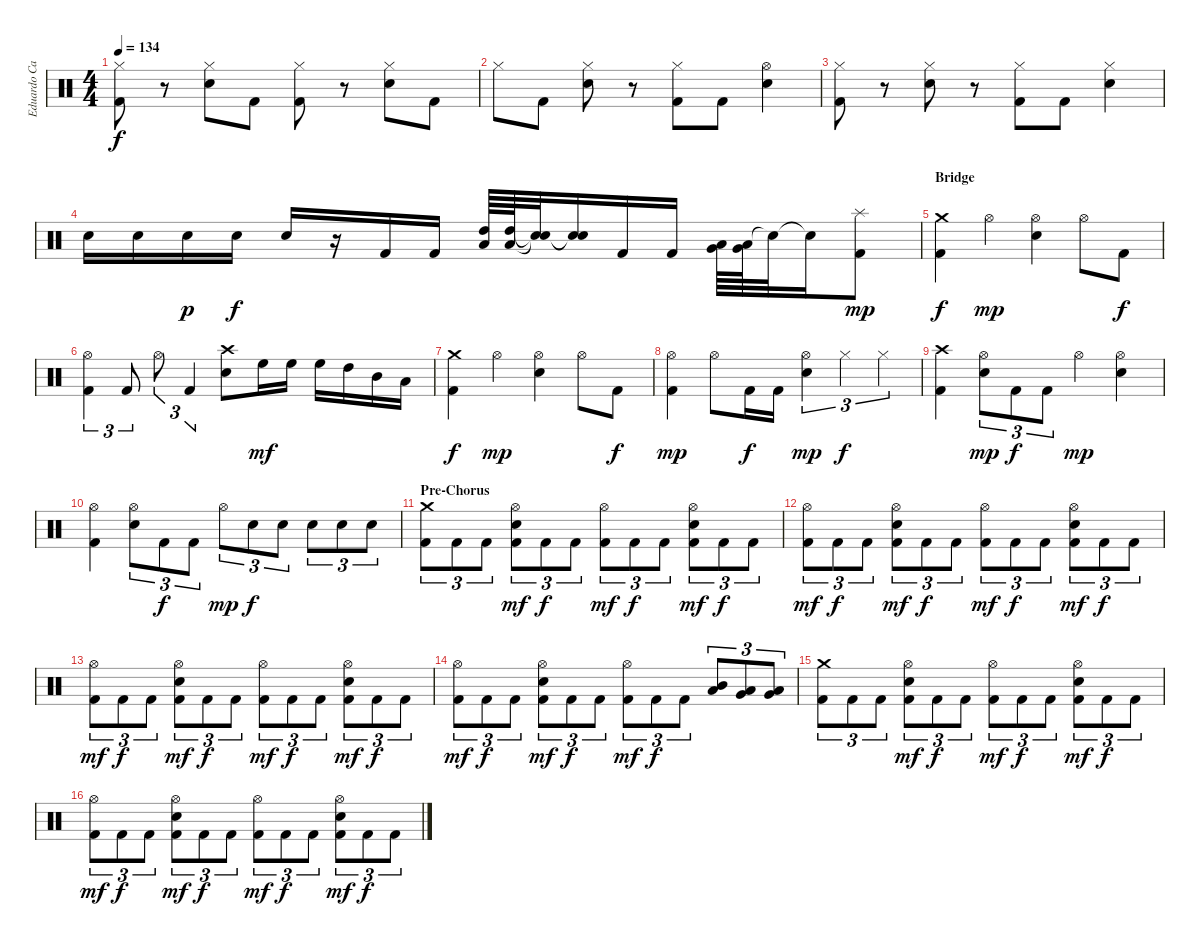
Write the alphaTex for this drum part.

\track ("Eduardo Carrillo" "Eduardo Ca") {instrument percussion}
\staff {score}
\articulation defaults
\ts (4 4)
\tempo 134
\clef neutral
\ks c
("Kick (hit) 2" "Hi-Hat (closed)").8{dy f} r.8 ("Hi-Hat (closed)" "Snare (hit) 2").8 "Kick (hit) 2".8 ("Kick (hit) 2" "Hi-Hat (closed)").8 r.8 ("Hi-Hat (closed)" "Snare (hit) 2").8 "Kick (hit) 2".8 |
"Hi-Hat (closed)".8 "Kick (hit) 2".8 ("Hi-Hat (closed)" "Snare (hit) 2").8 r.8 ("Kick (hit) 2" "Hi-Hat (closed)").8 "Kick (hit) 2".8 ("Hi-Hat (open)" "Snare (hit) 2").4 |
("Kick (hit) 2" "Hi-Hat (closed)").8 r.8 ("Hi-Hat (closed)" "Snare (hit) 2").8 r.8 ("Kick (hit) 2" "Hi-Hat (closed)").8 "Kick (hit) 2".8 ("Hi-Hat (closed)" "Snare (hit) 2").4 |
"Snare (hit) 2".16 "Snare (hit) 2".16 "Snare (hit) 2".16{dy p} "Snare (hit) 2".16{dy f} "Snare (hit) 2".16 r.16 "Kick (hit) 2".16 "Kick (hit) 2".16 ("High Tom (hit)" "Low Tom (hit)").64 ("High Tom (hit)" "Low Tom (hit)").64 ("Snare (hit)"{t} "Snare (hit)"{t}).32 ("Snare (hit)"{t} "Snare (hit)"{t}).16 "Kick (hit) 2".16 "Kick (hit) 2".16 ("Low Tom (hit)" "Very Low Tom (hit)").64 ("Low Tom (hit)" "Very Low Tom (hit)").64 "Snare (hit)"{t}.32 "Snare (hit)"{t}.16 ("Kick (hit) 2" "Splash (hit)").8{dy mp} |
\section ("" "Bridge")
("Kick (hit) 2" "Crash medium (hit)").4{dy f} "Hi-Hat (open)".4{dy mp} ("Hi-Hat (open)" "Snare (hit) 2").4 "Hi-Hat (open)".8 "Kick (hit) 2".8{dy f} |
("Kick (hit) 2" "Hi-Hat (open)").4{tu (3 2)} "Kick (hit) 2".8{tu (3 2)} "Hi-Hat (open)".8{tu (3 2)} "Kick (hit) 2".4{tu (3 2)} ("Crash high (hit)" "Snare (hit) 2").8 "High Floor Tom (hit)".16{dy mf} "High Floor Tom (hit)".16 "High Floor Tom (hit)".16 "High Tom (hit)".16 "Mid Tom (hit)".16 "Low Tom (hit)".16 |
("Kick (hit) 2" "Crash medium (hit)").4{dy f} "Hi-Hat (open)".4{dy mp} ("Hi-Hat (open)" "Snare (hit) 2").4 "Hi-Hat (open)".8 "Kick (hit) 2".8{dy f} |
("Kick (hit) 2" "Hi-Hat (open)").4{dy mp} "Hi-Hat (open)".8 "Kick (hit) 2".16{dy f} "Kick (hit) 2".16 ("Hi-Hat (open)" "Snare (hit) 2").4{tu (3 2) dy mp} "Hi-Hat (closed)".4{tu (3 2) dy f} "Hi-Hat (closed)".4{tu (3 2)} |
("Kick (hit) 2" "Crash high (hit)").4 ("Hi-Hat (open)" "Snare (hit) 2").8{tu (3 2) dy mp} "Kick (hit) 2".8{tu (3 2) dy f} "Kick (hit) 2".8{tu (3 2)} "Hi-Hat (open)".4{dy mp} ("Hi-Hat (open)" "Snare (hit) 2").4 |
("Kick (hit) 2" "Hi-Hat (open)").4 ("Hi-Hat (open)" "Snare (hit) 2").8{tu (3 2)} "Kick (hit) 2".8{tu (3 2) dy f} "Kick (hit) 2".8{tu (3 2)} "Hi-Hat (open)".8{tu (3 2) dy mp} "Snare (hit) 2".8{tu (3 2) dy f} "Snare (hit) 2".8{tu (3 2)} "Snare (hit) 2".8{tu (3 2)} "Snare (hit) 2".8{tu (3 2)} "Snare (hit) 2".8{tu (3 2)} |
\section ("" "Pre-Chorus")
("Kick (hit) 2" "Crash medium (hit)").8{tu (3 2)} "Kick (hit) 2".8{tu (3 2)} "Kick (hit) 2".8{tu (3 2)} ("Kick (hit) 2" "Hi-Hat (open)" "Snare (hit) 2").8{tu (3 2) dy mf} "Kick (hit) 2".8{tu (3 2) dy f} "Kick (hit) 2".8{tu (3 2)} ("Kick (hit) 2" "Hi-Hat (open)").8{tu (3 2) dy mf} "Kick (hit) 2".8{tu (3 2) dy f} "Kick (hit) 2".8{tu (3 2)} ("Kick (hit) 2" "Hi-Hat (open)" "Snare (hit) 2").8{tu (3 2) dy mf} "Kick (hit) 2".8{tu (3 2) dy f} "Kick (hit) 2".8{tu (3 2)} |
("Kick (hit) 2" "Hi-Hat (open)").8{tu (3 2) dy mf} "Kick (hit) 2".8{tu (3 2) dy f} "Kick (hit) 2".8{tu (3 2)} ("Kick (hit) 2" "Hi-Hat (open)" "Snare (hit) 2").8{tu (3 2) dy mf} "Kick (hit) 2".8{tu (3 2) dy f} "Kick (hit) 2".8{tu (3 2)} ("Kick (hit) 2" "Hi-Hat (open)").8{tu (3 2) dy mf} "Kick (hit) 2".8{tu (3 2) dy f} "Kick (hit) 2".8{tu (3 2)} ("Kick (hit) 2" "Hi-Hat (open)" "Snare (hit) 2").8{tu (3 2) dy mf} "Kick (hit) 2".8{tu (3 2) dy f} "Kick (hit) 2".8{tu (3 2)} |
("Kick (hit) 2" "Hi-Hat (open)").8{tu (3 2) dy mf} "Kick (hit) 2".8{tu (3 2) dy f} "Kick (hit) 2".8{tu (3 2)} ("Kick (hit) 2" "Hi-Hat (open)" "Snare (hit) 2").8{tu (3 2) dy mf} "Kick (hit) 2".8{tu (3 2) dy f} "Kick (hit) 2".8{tu (3 2)} ("Kick (hit) 2" "Hi-Hat (open)").8{tu (3 2) dy mf} "Kick (hit) 2".8{tu (3 2) dy f} "Kick (hit) 2".8{tu (3 2)} ("Kick (hit) 2" "Hi-Hat (open)" "Snare (hit) 2").8{tu (3 2) dy mf} "Kick (hit) 2".8{tu (3 2) dy f} "Kick (hit) 2".8{tu (3 2)} |
("Kick (hit) 2" "Hi-Hat (open)").8{tu (3 2) dy mf} "Kick (hit) 2".8{tu (3 2) dy f} "Kick (hit) 2".8{tu (3 2)} ("Kick (hit) 2" "Hi-Hat (open)" "Snare (hit) 2").8{tu (3 2) dy mf} "Kick (hit) 2".8{tu (3 2) dy f} "Kick (hit) 2".8{tu (3 2)} ("Kick (hit) 2" "Hi-Hat (open)").8{tu (3 2) dy mf} "Kick (hit) 2".8{tu (3 2) dy f} "Kick (hit) 2".8{tu (3 2)} ("Mid Tom (hit)" "Low Tom (hit)").8{tu (3 2)} ("Low Tom (hit)" "Very Low Tom (hit)").8{tu (3 2)} ("Very Low Tom (hit)" "Low Floor Tom (hit)").8{tu (3 2)} |
("Kick (hit) 2" "Crash medium (hit)").8{tu (3 2)} "Kick (hit) 2".8{tu (3 2)} "Kick (hit) 2".8{tu (3 2)} ("Kick (hit) 2" "Hi-Hat (open)" "Snare (hit) 2").8{tu (3 2) dy mf} "Kick (hit) 2".8{tu (3 2) dy f} "Kick (hit) 2".8{tu (3 2)} ("Kick (hit) 2" "Hi-Hat (open)").8{tu (3 2) dy mf} "Kick (hit) 2".8{tu (3 2) dy f} "Kick (hit) 2".8{tu (3 2)} ("Kick (hit) 2" "Hi-Hat (open)" "Snare (hit) 2").8{tu (3 2) dy mf} "Kick (hit) 2".8{tu (3 2) dy f} "Kick (hit) 2".8{tu (3 2)} |
("Kick (hit) 2" "Hi-Hat (open)").8{tu (3 2) dy mf} "Kick (hit) 2".8{tu (3 2) dy f} "Kick (hit) 2".8{tu (3 2)} ("Kick (hit) 2" "Hi-Hat (open)" "Snare (hit) 2").8{tu (3 2) dy mf} "Kick (hit) 2".8{tu (3 2) dy f} "Kick (hit) 2".8{tu (3 2)} ("Kick (hit) 2" "Hi-Hat (open)").8{tu (3 2) dy mf} "Kick (hit) 2".8{tu (3 2) dy f} "Kick (hit) 2".8{tu (3 2)} ("Kick (hit) 2" "Hi-Hat (open)" "Snare (hit) 2").8{tu (3 2) dy mf} "Kick (hit) 2".8{tu (3 2) dy f} "Kick (hit) 2".8{tu (3 2)}
